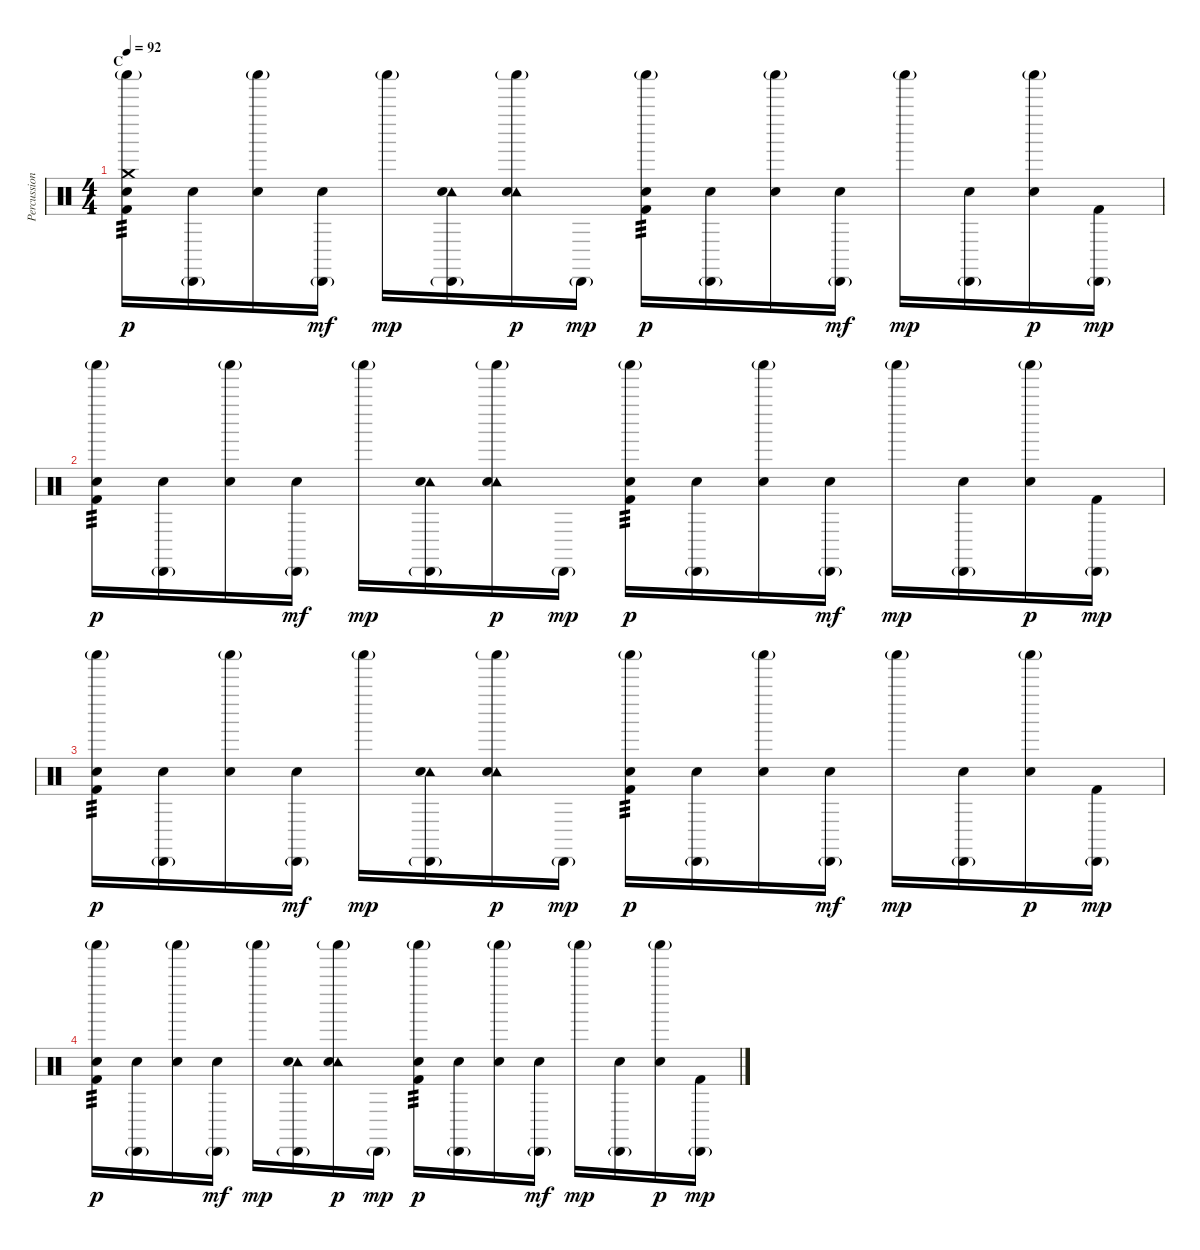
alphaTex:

\track ("Percussion2" "Percussion") {instrument percussion}
\staff {score}
\articulation defaults
\ts (4 4)
\section ("" "C")
\tempo 92
\clef neutral
\ks c
("Shaker (hit)"{g} "Crash medium (hit)" "Snare (hit) 2" "Kick (hit) 2").16{tp 3 dy p} ("Cabasa (hit)"{g} "Snare (hit) 2").16 ("Shaker (hit)"{g} "Snare (hit) 2").16 ("Cabasa (hit)"{g} "Snare (hit) 2").16{dy mf} "Shaker (hit)"{g}.16{dy mp} ("Cabasa (hit)"{g} "Tambourine (hit)" "Snare (hit) 2").16 ("Shaker (hit)"{g} "Tambourine (hit)" "Snare (hit) 2").16{dy p} "Cabasa (hit)"{g}.16{dy mp} ("Shaker (hit)"{g} "Snare (hit) 2" "Kick (hit) 2").16{tp 3 dy p} ("Cabasa (hit)"{g} "Snare (hit) 2").16 ("Shaker (hit)"{g} "Snare (hit) 2").16 ("Cabasa (hit)"{g} "Snare (hit) 2").16{dy mf} "Shaker (hit)"{g}.16{dy mp} ("Cabasa (hit)"{g} "Snare (hit) 2").16 ("Shaker (hit)"{g} "Snare (hit) 2").16{dy p} ("Cabasa (hit)"{g} "Kick (hit) 2").16{dy mp} |
("Shaker (hit)"{g} "Snare (hit) 2" "Kick (hit) 2").16{tp 3 dy p} ("Cabasa (hit)"{g} "Snare (hit) 2").16 ("Shaker (hit)"{g} "Snare (hit) 2").16 ("Cabasa (hit)"{g} "Snare (hit) 2").16{dy mf} "Shaker (hit)"{g}.16{dy mp} ("Cabasa (hit)"{g} "Tambourine (hit)" "Snare (hit) 2").16 ("Shaker (hit)"{g} "Tambourine (hit)" "Snare (hit) 2").16{dy p} "Cabasa (hit)"{g}.16{dy mp} ("Shaker (hit)"{g} "Snare (hit) 2" "Kick (hit) 2").16{tp 3 dy p} ("Cabasa (hit)"{g} "Snare (hit) 2").16 ("Shaker (hit)"{g} "Snare (hit) 2").16 ("Cabasa (hit)"{g} "Snare (hit) 2").16{dy mf} "Shaker (hit)"{g}.16{dy mp} ("Cabasa (hit)"{g} "Snare (hit) 2").16 ("Shaker (hit)"{g} "Snare (hit) 2").16{dy p} ("Cabasa (hit)"{g} "Kick (hit) 2").16{dy mp} |
("Shaker (hit)"{g} "Snare (hit) 2" "Kick (hit) 2").16{tp 3 dy p} ("Cabasa (hit)"{g} "Snare (hit) 2").16 ("Shaker (hit)"{g} "Snare (hit) 2").16 ("Cabasa (hit)"{g} "Snare (hit) 2").16{dy mf} "Shaker (hit)"{g}.16{dy mp} ("Cabasa (hit)"{g} "Tambourine (hit)" "Snare (hit) 2").16 ("Shaker (hit)"{g} "Tambourine (hit)" "Snare (hit) 2").16{dy p} "Cabasa (hit)"{g}.16{dy mp} ("Shaker (hit)"{g} "Snare (hit) 2" "Kick (hit) 2").16{tp 3 dy p} ("Cabasa (hit)"{g} "Snare (hit) 2").16 ("Shaker (hit)"{g} "Snare (hit) 2").16 ("Cabasa (hit)"{g} "Snare (hit) 2").16{dy mf} "Shaker (hit)"{g}.16{dy mp} ("Cabasa (hit)"{g} "Snare (hit) 2").16 ("Shaker (hit)"{g} "Snare (hit) 2").16{dy p} ("Cabasa (hit)"{g} "Kick (hit) 2").16{dy mp} |
("Shaker (hit)"{g} "Snare (hit) 2" "Kick (hit) 2").16{tp 3 dy p} ("Cabasa (hit)"{g} "Snare (hit) 2").16 ("Shaker (hit)"{g} "Snare (hit) 2").16 ("Cabasa (hit)"{g} "Snare (hit) 2").16{dy mf} "Shaker (hit)"{g}.16{dy mp} ("Cabasa (hit)"{g} "Tambourine (hit)" "Snare (hit) 2").16 ("Shaker (hit)"{g} "Tambourine (hit)" "Snare (hit) 2").16{dy p} "Cabasa (hit)"{g}.16{dy mp} ("Shaker (hit)"{g} "Snare (hit) 2" "Kick (hit) 2").16{tp 3 dy p} ("Cabasa (hit)"{g} "Snare (hit) 2").16 ("Shaker (hit)"{g} "Snare (hit) 2").16 ("Cabasa (hit)"{g} "Snare (hit) 2").16{dy mf} "Shaker (hit)"{g}.16{dy mp} ("Cabasa (hit)"{g} "Snare (hit) 2").16 ("Shaker (hit)"{g} "Snare (hit) 2").16{dy p} ("Cabasa (hit)"{g} "Kick (hit) 2").16{dy mp}
